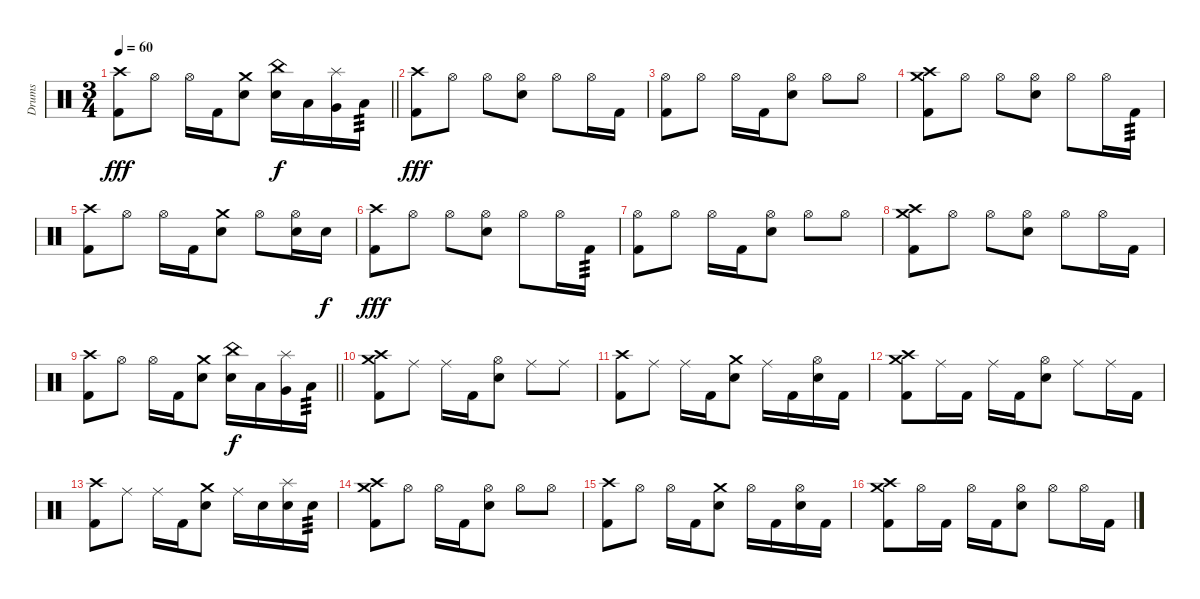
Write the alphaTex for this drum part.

\track ("Drums" "Drums") {instrument percussion}
\staff {score}
\articulation defaults
\ts (3 4)
\tempo 60
\clef neutral
\barLineRight lightlight
\ks c
("Kick (hit) 2" "Crash high (hit)").8{dy fff} "Hi-Hat (open)".8 "Hi-Hat (open)".16 "Kick (hit) 2".16 ("Electric Snare (hit)" "Crash medium (hit)").8 ("Electric Snare (hit)" "China (hit)").16{dy f} "Low Tom (hit)".16 ("Very Low Tom (hit)" "Splash (hit)").16 "Low Floor Tom (hit)".16{tp 3} |
("Kick (hit) 2" "Crash high (hit)").8{dy fff} "Hi-Hat (open)".8 "Hi-Hat (open)".8 ("Electric Snare (hit)" "Hi-Hat (open)").8 "Hi-Hat (open)".8 "Hi-Hat (open)".16 "Kick (hit) 2".16 |
("Kick (hit) 2" "Hi-Hat (open)").8 "Hi-Hat (open)".8 "Hi-Hat (open)".16 "Kick (hit) 2".16 ("Electric Snare (hit)" "Hi-Hat (open)").8 "Hi-Hat (open)".8 "Hi-Hat (open)".8 |
("Kick (hit) 2" "Crash high (hit)" "Crash medium (hit)").8 "Hi-Hat (open)".8 "Hi-Hat (open)".8 ("Electric Snare (hit)" "Hi-Hat (open)").8 "Hi-Hat (open)".8 "Hi-Hat (open)".16 "Kick (hit) 2".16{tp 3} |
("Kick (hit) 2" "Crash high (hit)").8 "Hi-Hat (open)".8 "Hi-Hat (open)".16 "Kick (hit) 2".16 ("Electric Snare (hit)" "Crash medium (hit)").8 "Hi-Hat (open)".8 ("Electric Snare (hit)" "Hi-Hat (open)").16 "Electric Snare (hit)".16{dy f} |
("Kick (hit) 2" "Crash high (hit)").8{dy fff} "Hi-Hat (open)".8 "Hi-Hat (open)".8 ("Electric Snare (hit)" "Hi-Hat (open)").8 "Hi-Hat (open)".8 "Hi-Hat (open)".16 "Kick (hit) 2".16{tp 3} |
("Kick (hit) 2" "Hi-Hat (open)").8 "Hi-Hat (open)".8 "Hi-Hat (open)".16 "Kick (hit) 2".16 ("Electric Snare (hit)" "Hi-Hat (open)").8 "Hi-Hat (open)".8 "Hi-Hat (open)".8 |
("Kick (hit) 2" "Crash high (hit)" "Crash medium (hit)").8 "Hi-Hat (open)".8 "Hi-Hat (open)".8 ("Electric Snare (hit)" "Hi-Hat (open)").8 "Hi-Hat (open)".8 "Hi-Hat (open)".16 "Kick (hit) 2".16 |
\barLineRight lightlight
("Kick (hit) 2" "Crash high (hit)").8 "Hi-Hat (open)".8 "Hi-Hat (open)".16 "Kick (hit) 2".16 ("Electric Snare (hit)" "Crash medium (hit)").8 ("Electric Snare (hit)" "China (hit)").16{dy f} "Low Tom (hit)".16 ("Very Low Tom (hit)" "Splash (hit)").16 "Low Floor Tom (hit)".16{tp 3} |
("Kick (hit) 2" "Crash high (hit)" "Crash medium (hit)").8 "Ride (middle)".8 "Ride (middle)".16 "Kick (hit) 2".16 ("Electric Snare (hit)" "Hi-Hat (open)").8 "Ride (middle)".8 "Ride (middle)".8 |
("Kick (hit) 2" "Crash high (hit)").8 "Ride (middle)".8 "Ride (middle)".16 "Kick (hit) 2".16 ("Electric Snare (hit)" "Crash medium (hit)").8 "Ride (middle)".16 "Kick (hit) 2".16 ("Electric Snare (hit)" "Hi-Hat (open)").16 "Kick (hit) 2".16 |
("Kick (hit) 2" "Crash high (hit)" "Crash medium (hit)").8 "Ride (middle)".16 "Kick (hit) 2".16 "Ride (middle)".16 "Kick (hit) 2".16 ("Electric Snare (hit)" "Hi-Hat (open)").8 "Ride (middle)".8 "Ride (middle)".16 "Kick (hit) 2".16 |
("Kick (hit) 2" "Crash high (hit)").8 "Ride (middle)".8 "Ride (middle)".16 "Kick (hit) 2".16 ("Electric Snare (hit)" "Crash medium (hit)").8 "Ride (middle)".16 "Electric Snare (hit)".16 ("Electric Snare (hit)" "Splash (hit)").16 "Electric Snare (hit)".16{tp 3} |
("Kick (hit) 2" "Crash high (hit)" "Crash medium (hit)").8 "Hi-Hat (open)".8 "Hi-Hat (open)".16 "Kick (hit) 2".16 ("Electric Snare (hit)" "Hi-Hat (open)").8 "Hi-Hat (open)".8 "Hi-Hat (open)".8 |
("Kick (hit) 2" "Crash high (hit)").8 "Hi-Hat (open)".8 "Hi-Hat (open)".16 "Kick (hit) 2".16 ("Electric Snare (hit)" "Crash medium (hit)").8 "Hi-Hat (open)".16 "Kick (hit) 2".16 ("Electric Snare (hit)" "Hi-Hat (open)").16 "Kick (hit) 2".16 |
("Kick (hit) 2" "Crash high (hit)" "Crash medium (hit)").8 "Hi-Hat (open)".16 "Kick (hit) 2".16 "Hi-Hat (open)".16 "Kick (hit) 2".16 ("Electric Snare (hit)" "Hi-Hat (open)").8 "Hi-Hat (open)".8 "Hi-Hat (open)".16 "Kick (hit) 2".16
